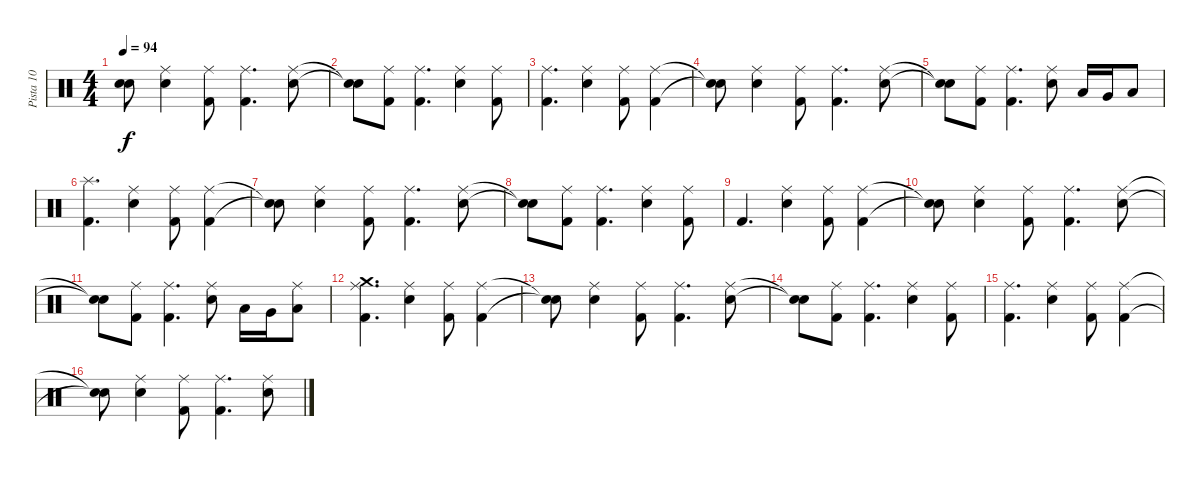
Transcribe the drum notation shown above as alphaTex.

\track ("Pista 10" "Pista 10") {instrument percussion}
\staff {score}
\articulation defaults
\ts (4 4)
\tempo 94
\clef neutral
\ks c
("Snare (hit)"{t} "Snare (hit)"{t}).8{dy f} ("Ride (middle)" "Snare (hit) 2").4 ("Ride (middle)" "Kick (hit) 2").8 ("Ride (middle)" "Kick (hit) 2").4{d} ("Ride (middle)" "Snare (hit) 2").8 |
("Snare (hit)"{t} "Snare (hit)"{t}).8 ("Ride (middle)" "Kick (hit) 2").8 ("Ride (middle)" "Kick (hit) 2").4{d} ("Ride (middle)" "Snare (hit) 2").4 ("Ride (middle)" "Kick (hit) 2").8 |
("Ride (middle)" "Kick (hit) 2").4{d} ("Ride (middle)" "Snare (hit) 2").4 ("Ride (middle)" "Kick (hit) 2").8 ("Ride (middle)" "Kick (hit) 2").4 |
("Snare (hit)"{t} "Snare (hit)"{t}).8 ("Ride (middle)" "Snare (hit) 2").4 ("Ride (middle)" "Kick (hit) 2").8 ("Ride (middle)" "Kick (hit) 2").4{d} ("Ride (middle)" "Snare (hit) 2").8 |
("Snare (hit)"{t} "Snare (hit)"{t}).8 ("Ride (middle)" "Kick (hit) 2").8 ("Ride (middle)" "Kick (hit) 2").4{d} ("Ride (middle)" "Snare (hit) 2").8 "Low Tom (hit)".16 "Very Low Tom (hit)".16 "Low Floor Tom (hit)".8 |
("Splash (hit)" "Kick (hit) 2").4{d} ("Ride (middle)" "Snare (hit) 2").4 ("Ride (middle)" "Kick (hit) 2").8 ("Ride (middle)" "Kick (hit) 2").4 |
("Snare (hit)"{t} "Snare (hit)"{t}).8 ("Ride (middle)" "Snare (hit) 2").4 ("Ride (middle)" "Kick (hit) 2").8 ("Ride (middle)" "Kick (hit) 2").4{d} ("Ride (middle)" "Snare (hit) 2").8 |
("Snare (hit)"{t} "Snare (hit)"{t}).8 ("Ride (middle)" "Kick (hit) 2").8 ("Ride (middle)" "Kick (hit) 2").4{d} ("Ride (middle)" "Snare (hit) 2").4 ("Ride (middle)" "Kick (hit) 2").8 |
"Kick (hit) 2".4{d} ("Ride (middle)" "Snare (hit) 2").4 ("Ride (middle)" "Kick (hit) 2").8 ("Ride (middle)" "Kick (hit) 2").4 |
("Snare (hit)"{t} "Snare (hit)"{t}).8 ("Ride (middle)" "Snare (hit) 2").4 ("Ride (middle)" "Kick (hit) 2").8 ("Ride (middle)" "Kick (hit) 2").4{d} ("Ride (middle)" "Snare (hit) 2").8 |
("Snare (hit)"{t} "Snare (hit)"{t}).8 ("Ride (middle)" "Kick (hit) 2").8 ("Ride (middle)" "Kick (hit) 2").4{d} ("Ride (middle)" "Snare (hit) 2").8 "Low Tom (hit)".16 "Very Low Tom (hit)".16 ("Low Floor Tom (hit)" "Ride (middle)").8 |
("Crash medium (hit)" "Ride (middle)" "Kick (hit) 2").4{d} ("Ride (middle)" "Snare (hit) 2").4 ("Ride (middle)" "Kick (hit) 2").8 ("Ride (middle)" "Kick (hit) 2").4 |
("Snare (hit)"{t} "Snare (hit)"{t}).8 ("Ride (middle)" "Snare (hit) 2").4 ("Ride (middle)" "Kick (hit) 2").8 ("Ride (middle)" "Kick (hit) 2").4{d} ("Ride (middle)" "Snare (hit) 2").8 |
("Snare (hit)"{t} "Snare (hit)"{t}).8 ("Ride (middle)" "Kick (hit) 2").8 ("Ride (middle)" "Kick (hit) 2").4{d} ("Ride (middle)" "Snare (hit) 2").4 ("Ride (middle)" "Kick (hit) 2").8 |
("Ride (middle)" "Kick (hit) 2").4{d} ("Ride (middle)" "Snare (hit) 2").4 ("Ride (middle)" "Kick (hit) 2").8 ("Ride (middle)" "Kick (hit) 2").4 |
("Snare (hit)"{t} "Snare (hit)"{t}).8 ("Ride (middle)" "Snare (hit) 2").4 ("Ride (middle)" "Kick (hit) 2").8 ("Ride (middle)" "Kick (hit) 2").4{d} ("Ride (middle)" "Snare (hit) 2").8
